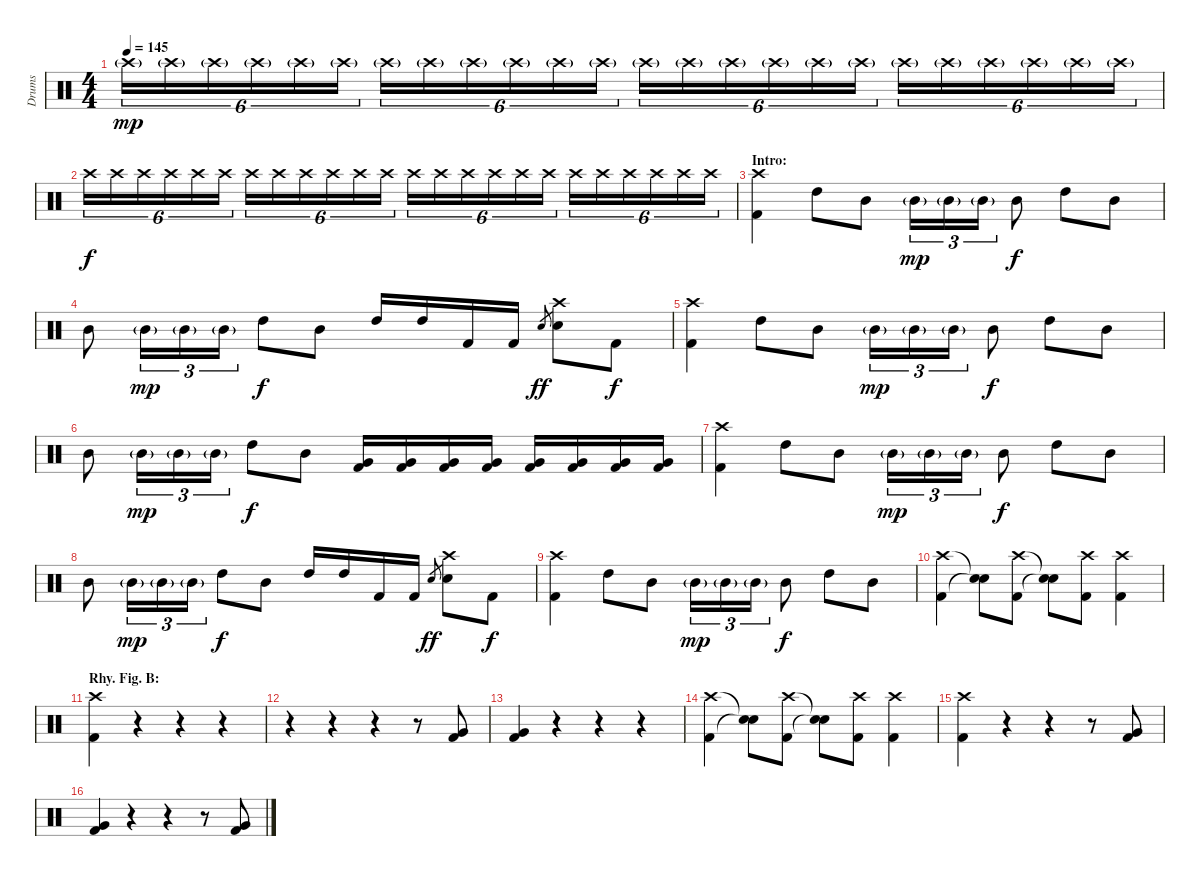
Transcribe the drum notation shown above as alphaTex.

\track ("Drums" "Drums") {instrument percussion}
\staff {score}
\articulation defaults
\ts (4 4)
\tempo 145
\clef neutral
\ks c "Crash high (hit)"{g}.16{tu (6 4) dy mp} "Crash high (hit)"{g}.16{tu (6 4)} "Crash high (hit)"{g}.16{tu (6 4)} "Crash high (hit)"{g}.16{tu (6 4)} "Crash high (hit)"{g}.16{tu (6 4)} "Crash high (hit)"{g}.16{tu (6 4)} "Crash high (hit)"{g}.16{tu (6 4)} "Crash high (hit)"{g}.16{tu (6 4)} "Crash high (hit)"{g}.16{tu (6 4)} "Crash high (hit)"{g}.16{tu (6 4)} "Crash high (hit)"{g}.16{tu (6 4)} "Crash high (hit)"{g}.16{tu (6 4)} "Crash high (hit)"{g}.16{tu (6 4)} "Crash high (hit)"{g}.16{tu (6 4)} "Crash high (hit)"{g}.16{tu (6 4)} "Crash high (hit)"{g}.16{tu (6 4)} "Crash high (hit)"{g}.16{tu (6 4)} "Crash high (hit)"{g}.16{tu (6 4)} "Crash high (hit)"{g}.16{tu (6 4)} "Crash high (hit)"{g}.16{tu (6 4)} "Crash high (hit)"{g}.16{tu (6 4)} "Crash high (hit)"{g}.16{tu (6 4)} "Crash high (hit)"{g}.16{tu (6 4)} "Crash high (hit)"{g}.16{tu (6 4)}
|
"Crash high (hit)".16{tu (6 4) dy f} "Crash high (hit)".16{tu (6 4)} "Crash high (hit)".16{tu (6 4)} "Crash high (hit)".16{tu (6 4)} "Crash high (hit)".16{tu (6 4)} "Crash high (hit)".16{tu (6 4)} "Crash high (hit)".16{tu (6 4)} "Crash high (hit)".16{tu (6 4)} "Crash high (hit)".16{tu (6 4)} "Crash high (hit)".16{tu (6 4)} "Crash high (hit)".16{tu (6 4)} "Crash high (hit)".16{tu (6 4)} "Crash high (hit)".16{tu (6 4)} "Crash high (hit)".16{tu (6 4)} "Crash high (hit)".16{tu (6 4)} "Crash high (hit)".16{tu (6 4)} "Crash high (hit)".16{tu (6 4)} "Crash high (hit)".16{tu (6 4)} "Crash high (hit)".16{tu (6 4)} "Crash high (hit)".16{tu (6 4)} "Crash high (hit)".16{tu (6 4)} "Crash high (hit)".16{tu (6 4)} "Crash high (hit)".16{tu (6 4)} "Crash high (hit)".16{tu (6 4)} |
\section ("" "Intro:")
("Crash high (hit)" "Kick (hit) 2").4 "High Tom (hit)".8 "Mid Tom (hit)".8 "Mid Tom (hit)"{g}.16{tu (3 2) dy mp} "Mid Tom (hit)"{g}.16{tu (3 2)} "Mid Tom (hit)"{g}.16{tu (3 2)} "Mid Tom (hit)".8{dy f} "High Tom (hit)".8 "Mid Tom (hit)".8 |
"Mid Tom (hit)".8 "Mid Tom (hit)"{g}.16{tu (3 2) dy mp} "Mid Tom (hit)"{g}.16{tu (3 2)} "Mid Tom (hit)"{g}.16{tu (3 2)} "High Tom (hit)".8{dy f} "Mid Tom (hit)".8 "High Tom (hit)".16 "High Tom (hit)".16 "Kick (hit) 2".16 "Kick (hit) 2".16 "Electric Snare (hit)".8{gr dy ff} ("Crash high (hit)" "Electric Snare (hit)").8 "Kick (hit) 2".8{dy f} |
("Crash high (hit)" "Kick (hit) 2").4 "High Tom (hit)".8 "Mid Tom (hit)".8 "Mid Tom (hit)"{g}.16{tu (3 2) dy mp} "Mid Tom (hit)"{g}.16{tu (3 2)} "Mid Tom (hit)"{g}.16{tu (3 2)} "Mid Tom (hit)".8{dy f} "High Tom (hit)".8 "Mid Tom (hit)".8 |
"Mid Tom (hit)".8 "Mid Tom (hit)"{g}.16{tu (3 2) dy mp} "Mid Tom (hit)"{g}.16{tu (3 2)} "Mid Tom (hit)"{g}.16{tu (3 2)} "High Tom (hit)".8{dy f} "Mid Tom (hit)".8 ("Very Low Tom (hit)" "Kick (hit) 2").16 ("Very Low Tom (hit)" "Kick (hit) 2").16 ("Very Low Tom (hit)" "Kick (hit) 2").16 ("Very Low Tom (hit)" "Kick (hit) 2").16 ("Very Low Tom (hit)" "Kick (hit) 2").16 ("Very Low Tom (hit)" "Kick (hit) 2").16 ("Very Low Tom (hit)" "Kick (hit) 2").16 ("Very Low Tom (hit)" "Kick (hit) 2").16 |
("Crash high (hit)" "Kick (hit) 2").4 "High Tom (hit)".8 "Mid Tom (hit)".8 "Mid Tom (hit)"{g}.16{tu (3 2) dy mp} "Mid Tom (hit)"{g}.16{tu (3 2)} "Mid Tom (hit)"{g}.16{tu (3 2)} "Mid Tom (hit)".8{dy f} "High Tom (hit)".8 "Mid Tom (hit)".8 |
"Mid Tom (hit)".8 "Mid Tom (hit)"{g}.16{tu (3 2) dy mp} "Mid Tom (hit)"{g}.16{tu (3 2)} "Mid Tom (hit)"{g}.16{tu (3 2)} "High Tom (hit)".8{dy f} "Mid Tom (hit)".8 "High Tom (hit)".16 "High Tom (hit)".16 "Kick (hit) 2".16 "Kick (hit) 2".16 "Electric Snare (hit)".8{gr dy ff} ("Crash high (hit)" "Electric Snare (hit)").8 "Kick (hit) 2".8{dy f} |
("Crash high (hit)" "Kick (hit) 2").4 "High Tom (hit)".8 "Mid Tom (hit)".8 "Mid Tom (hit)"{g}.16{tu (3 2) dy mp} "Mid Tom (hit)"{g}.16{tu (3 2)} "Mid Tom (hit)"{g}.16{tu (3 2)} "Mid Tom (hit)".8{dy f} "High Tom (hit)".8 "Mid Tom (hit)".8 |
("Crash high (hit)" "Kick (hit) 2").4 ("Snare (hit)"{t} "Snare (hit)"{t}).8 ("Crash high (hit)" "Kick (hit) 2").8 ("Snare (hit)"{t} "Snare (hit)"{t}).8 ("Crash high (hit)" "Kick (hit) 2").8 ("Crash high (hit)" "Kick (hit) 2").4 |
\section ("" "Rhy. Fig. B:")
("Crash high (hit)" "Kick (hit) 2").4 r.4 r.4 r.4 |
r.4 r.4 r.4 r.8 ("Very Low Tom (hit)" "Kick (hit) 2").8 |
("Very Low Tom (hit)" "Kick (hit) 2").4 r.4 r.4 r.4 |
("Crash high (hit)" "Kick (hit) 2").4 ("Snare (hit)"{t} "Snare (hit)"{t}).8 ("Crash high (hit)" "Kick (hit) 2").8 ("Snare (hit)"{t} "Snare (hit)"{t}).8 ("Crash high (hit)" "Kick (hit) 2").8 ("Crash high (hit)" "Kick (hit) 2").4 |
("Crash high (hit)" "Kick (hit) 2").4 r.4 r.4 r.8 ("Very Low Tom (hit)" "Kick (hit) 2").8 |
("Very Low Tom (hit)" "Kick (hit) 2").4 r.4 r.4 r.8 ("Very Low Tom (hit)" "Kick (hit) 2").8
